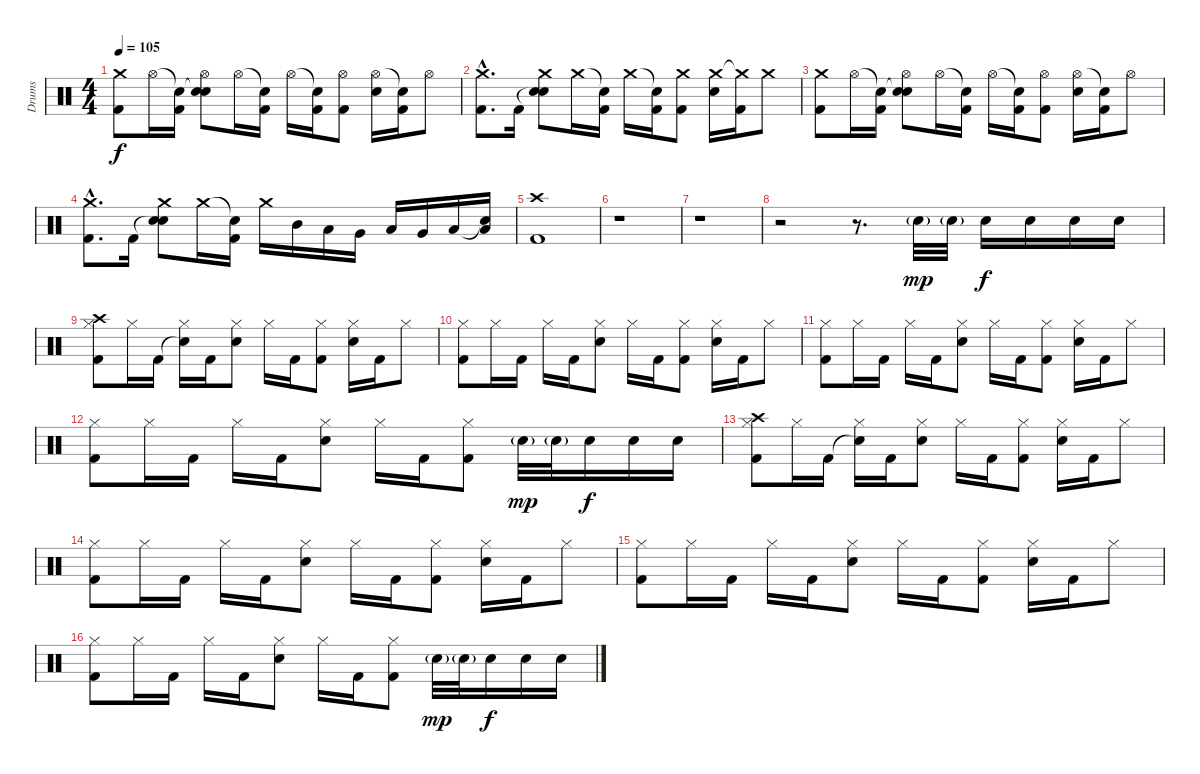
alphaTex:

\track ("Drums" "Drums") {instrument percussion}
\staff {score}
\articulation defaults
\ts (4 4)
\tempo 105
\clef neutral
\ks c
("Crash medium (hit)" "Kick (hit) 2").8{dy f} "Hi-Hat (open)".16 ("Snare (hit)"{t} "Kick (hit) 2").16 ("Snare (hit)"{t} "Hi-Hat (open)" "Electric Snare (hit)").8 "Hi-Hat (open)".16 ("Snare (hit)"{t} "Kick (hit) 2").16 "Hi-Hat (open)".16 ("Snare (hit)"{t} "Kick (hit) 2").16 ("Hi-Hat (open)" "Kick (hit) 2").8 ("Hi-Hat (open)" "Electric Snare (hit)").16 ("Snare (hit)"{t} "Kick (hit) 2").16 "Hi-Hat (open)".8 |
("Crash medium (hit)"{hac} "Kick (hit) 2"{hac}).8{d} "Kick (hit) 2".16 ("Snare (hit)"{t} "Crash medium (hit)" "Electric Snare (hit)").8 "Crash medium (hit)".16 ("Snare (hit)"{t} "Kick (hit) 2").16 "Crash medium (hit)".16 ("Snare (hit)"{t} "Kick (hit) 2").16 ("Crash medium (hit)" "Kick (hit) 2").8 ("Crash medium (hit)" "Electric Snare (hit)").16 ("Crash medium (hit)"{t} "Kick (hit) 2").16 "Crash medium (hit)".8 |
("Crash medium (hit)" "Kick (hit) 2").8 "Hi-Hat (open)".16 ("Snare (hit)"{t} "Kick (hit) 2").16 ("Snare (hit)"{t} "Hi-Hat (open)" "Electric Snare (hit)").8 "Hi-Hat (open)".16 ("Snare (hit)"{t} "Kick (hit) 2").16 "Hi-Hat (open)".16 ("Snare (hit)"{t} "Kick (hit) 2").16 ("Hi-Hat (open)" "Kick (hit) 2").8 ("Hi-Hat (open)" "Electric Snare (hit)").16 ("Snare (hit)"{t} "Kick (hit) 2").16 "Hi-Hat (open)".8 |
("Crash medium (hit)"{hac} "Kick (hit) 2"{hac}).8{d} "Kick (hit) 2".16 ("Snare (hit)"{t} "Crash medium (hit)" "Electric Snare (hit)").8 "Crash medium (hit)".16 ("Snare (hit)"{t} "Kick (hit) 2").16 "Crash medium (hit)".16 "Mid Tom (hit)".16 "Low Tom (hit)".16 "Very Low Tom (hit)".16 "Low Tom (hit)".16 "Very Low Tom (hit)".16 "Low Floor Tom (hit)".16 ("Snare (hit)"{t} "Low Floor Tom (hit)").16 |
("Crash high (hit)" "Kick (hit) 2").1 |
r.1 |
r.1 |
r.2 r.8{d} "Electric Snare (hit)"{g}.32{dy mp} "Electric Snare (hit)"{g}.32 "Electric Snare (hit)".16{dy f} "Electric Snare (hit)".16 "Electric Snare (hit)".16 "Electric Snare (hit)".16 |
("Crash high (hit)" "Hi-Hat (closed)" "Kick (hit) 2").8 "Hi-Hat (closed)".16 "Kick (hit) 2".16 ("Snare (hit)"{t} "Hi-Hat (closed)").16 "Kick (hit) 2".16 ("Hi-Hat (closed)" "Electric Snare (hit)").8 "Hi-Hat (closed)".16 "Kick (hit) 2".16 ("Hi-Hat (closed)" "Kick (hit) 2").8 ("Hi-Hat (closed)" "Electric Snare (hit)").16 "Kick (hit) 2".16 "Hi-Hat (closed)".8 |
("Hi-Hat (closed)" "Kick (hit) 2").8 "Hi-Hat (closed)".16 "Kick (hit) 2".16 "Hi-Hat (closed)".16 "Kick (hit) 2".16 ("Hi-Hat (closed)" "Electric Snare (hit)").8 "Hi-Hat (closed)".16 "Kick (hit) 2".16 ("Hi-Hat (closed)" "Kick (hit) 2").8 ("Hi-Hat (closed)" "Electric Snare (hit)").16 "Kick (hit) 2".16 "Hi-Hat (closed)".8 |
("Hi-Hat (closed)" "Kick (hit) 2").8 "Hi-Hat (closed)".16 "Kick (hit) 2".16 "Hi-Hat (closed)".16 "Kick (hit) 2".16 ("Hi-Hat (closed)" "Electric Snare (hit)").8 "Hi-Hat (closed)".16 "Kick (hit) 2".16 ("Hi-Hat (closed)" "Kick (hit) 2").8 ("Hi-Hat (closed)" "Electric Snare (hit)").16 "Kick (hit) 2".16 "Hi-Hat (closed)".8 |
("Hi-Hat (closed)" "Kick (hit) 2").8 "Hi-Hat (closed)".16 "Kick (hit) 2".16 "Hi-Hat (closed)".16 "Kick (hit) 2".16 ("Hi-Hat (closed)" "Electric Snare (hit)").8 "Hi-Hat (closed)".16 "Kick (hit) 2".16 ("Hi-Hat (closed)" "Kick (hit) 2").8 "Electric Snare (hit)"{g}.32{dy mp} "Electric Snare (hit)"{g}.32 "Electric Snare (hit)".16{dy f} "Electric Snare (hit)".16 "Electric Snare (hit)".16 |
("Crash high (hit)" "Hi-Hat (closed)" "Kick (hit) 2").8 "Hi-Hat (closed)".16 "Kick (hit) 2".16 ("Snare (hit)"{t} "Hi-Hat (closed)").16 "Kick (hit) 2".16 ("Hi-Hat (closed)" "Electric Snare (hit)").8 "Hi-Hat (closed)".16 "Kick (hit) 2".16 ("Hi-Hat (closed)" "Kick (hit) 2").8 ("Hi-Hat (closed)" "Electric Snare (hit)").16 "Kick (hit) 2".16 "Hi-Hat (closed)".8 |
("Hi-Hat (closed)" "Kick (hit) 2").8 "Hi-Hat (closed)".16 "Kick (hit) 2".16 "Hi-Hat (closed)".16 "Kick (hit) 2".16 ("Hi-Hat (closed)" "Electric Snare (hit)").8 "Hi-Hat (closed)".16 "Kick (hit) 2".16 ("Hi-Hat (closed)" "Kick (hit) 2").8 ("Hi-Hat (closed)" "Electric Snare (hit)").16 "Kick (hit) 2".16 "Hi-Hat (closed)".8 |
("Hi-Hat (closed)" "Kick (hit) 2").8 "Hi-Hat (closed)".16 "Kick (hit) 2".16 "Hi-Hat (closed)".16 "Kick (hit) 2".16 ("Hi-Hat (closed)" "Electric Snare (hit)").8 "Hi-Hat (closed)".16 "Kick (hit) 2".16 ("Hi-Hat (closed)" "Kick (hit) 2").8 ("Hi-Hat (closed)" "Electric Snare (hit)").16 "Kick (hit) 2".16 "Hi-Hat (closed)".8 |
("Hi-Hat (closed)" "Kick (hit) 2").8 "Hi-Hat (closed)".16 "Kick (hit) 2".16 "Hi-Hat (closed)".16 "Kick (hit) 2".16 ("Hi-Hat (closed)" "Electric Snare (hit)").8 "Hi-Hat (closed)".16 "Kick (hit) 2".16 ("Hi-Hat (closed)" "Kick (hit) 2").8 "Electric Snare (hit)"{g}.32{dy mp} "Electric Snare (hit)"{g}.32 "Electric Snare (hit)".16{dy f} "Electric Snare (hit)".16 "Electric Snare (hit)".16
